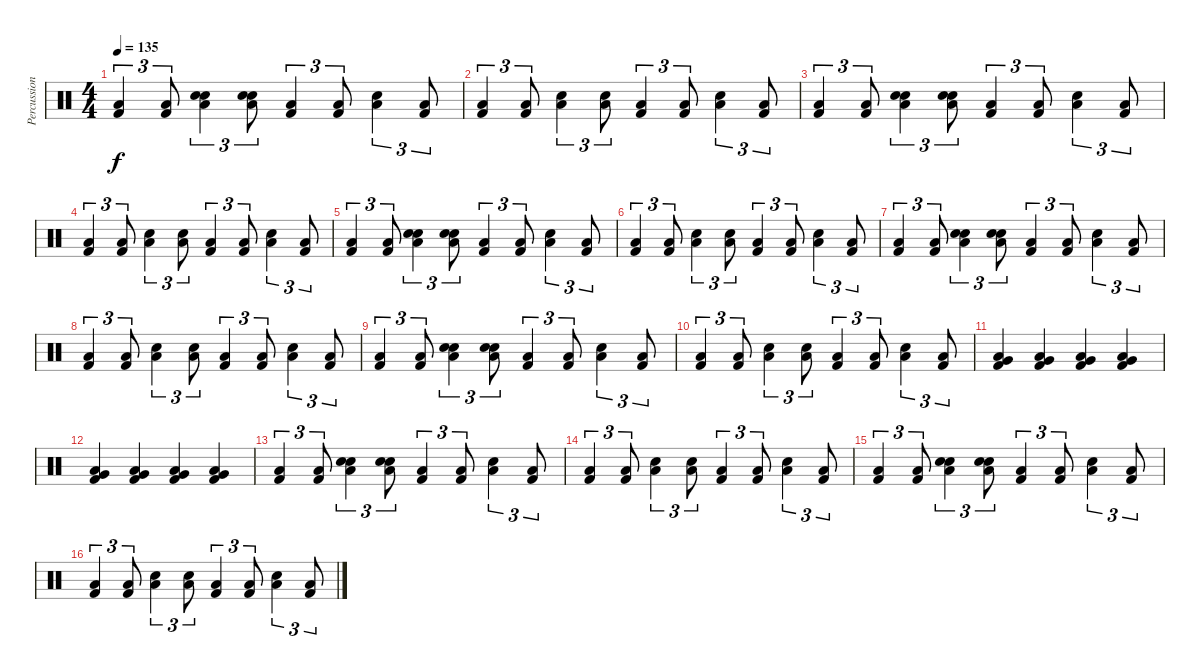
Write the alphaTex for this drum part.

\track ("Percussion" "Percussion") {instrument percussion}
\staff {score}
\articulation defaults
\ts (4 4)
\tempo 135
\clef neutral
\ks c
("Low Floor Tom (hit)" "Kick (hit) 2").4{tu (3 2) dy f} ("Low Floor Tom (hit)" "Kick (hit) 2").8{tu (3 2)} ("Hand Clap (hit)" "Low Floor Tom (hit)" "Electric Snare (hit)").4{tu (3 2)} ("Hand Clap (hit)" "Low Floor Tom (hit)" "Electric Snare (hit)").8{tu (3 2)} ("Low Floor Tom (hit)" "Kick (hit) 2").4{tu (3 2)} ("Low Floor Tom (hit)" "Kick (hit) 2").8{tu (3 2)} ("Low Floor Tom (hit)" "Electric Snare (hit)").4{tu (3 2)} ("Low Floor Tom (hit)" "Kick (hit) 2").8{tu (3 2)} |
("Low Floor Tom (hit)" "Kick (hit) 2").4{tu (3 2)} ("Low Floor Tom (hit)" "Kick (hit) 2").8{tu (3 2)} ("Low Floor Tom (hit)" "Electric Snare (hit)").4{tu (3 2)} ("Low Floor Tom (hit)" "Electric Snare (hit)").8{tu (3 2)} ("Low Floor Tom (hit)" "Kick (hit) 2").4{tu (3 2)} ("Low Floor Tom (hit)" "Kick (hit) 2").8{tu (3 2)} ("Low Floor Tom (hit)" "Electric Snare (hit)").4{tu (3 2)} ("Low Floor Tom (hit)" "Kick (hit) 2").8{tu (3 2)} |
("Low Floor Tom (hit)" "Kick (hit) 2").4{tu (3 2)} ("Low Floor Tom (hit)" "Kick (hit) 2").8{tu (3 2)} ("Hand Clap (hit)" "Low Floor Tom (hit)" "Electric Snare (hit)").4{tu (3 2)} ("Hand Clap (hit)" "Low Floor Tom (hit)" "Electric Snare (hit)").8{tu (3 2)} ("Low Floor Tom (hit)" "Kick (hit) 2").4{tu (3 2)} ("Low Floor Tom (hit)" "Kick (hit) 2").8{tu (3 2)} ("Low Floor Tom (hit)" "Electric Snare (hit)").4{tu (3 2)} ("Low Floor Tom (hit)" "Kick (hit) 2").8{tu (3 2)} |
("Low Floor Tom (hit)" "Kick (hit) 2").4{tu (3 2)} ("Low Floor Tom (hit)" "Kick (hit) 2").8{tu (3 2)} ("Low Floor Tom (hit)" "Electric Snare (hit)").4{tu (3 2)} ("Low Floor Tom (hit)" "Electric Snare (hit)").8{tu (3 2)} ("Low Floor Tom (hit)" "Kick (hit) 2").4{tu (3 2)} ("Low Floor Tom (hit)" "Kick (hit) 2").8{tu (3 2)} ("Low Floor Tom (hit)" "Electric Snare (hit)").4{tu (3 2)} ("Low Floor Tom (hit)" "Kick (hit) 2").8{tu (3 2)} |
("Low Floor Tom (hit)" "Kick (hit) 2").4{tu (3 2)} ("Low Floor Tom (hit)" "Kick (hit) 2").8{tu (3 2)} ("Hand Clap (hit)" "Low Floor Tom (hit)" "Electric Snare (hit)").4{tu (3 2)} ("Hand Clap (hit)" "Low Floor Tom (hit)" "Electric Snare (hit)").8{tu (3 2)} ("Low Floor Tom (hit)" "Kick (hit) 2").4{tu (3 2)} ("Low Floor Tom (hit)" "Kick (hit) 2").8{tu (3 2)} ("Low Floor Tom (hit)" "Electric Snare (hit)").4{tu (3 2)} ("Low Floor Tom (hit)" "Kick (hit) 2").8{tu (3 2)} |
("Low Floor Tom (hit)" "Kick (hit) 2").4{tu (3 2)} ("Low Floor Tom (hit)" "Kick (hit) 2").8{tu (3 2)} ("Low Floor Tom (hit)" "Electric Snare (hit)").4{tu (3 2)} ("Low Floor Tom (hit)" "Electric Snare (hit)").8{tu (3 2)} ("Low Floor Tom (hit)" "Kick (hit) 2").4{tu (3 2)} ("Low Floor Tom (hit)" "Kick (hit) 2").8{tu (3 2)} ("Low Floor Tom (hit)" "Electric Snare (hit)").4{tu (3 2)} ("Low Floor Tom (hit)" "Kick (hit) 2").8{tu (3 2)} |
("Low Floor Tom (hit)" "Kick (hit) 2").4{tu (3 2)} ("Low Floor Tom (hit)" "Kick (hit) 2").8{tu (3 2)} ("Hand Clap (hit)" "Low Floor Tom (hit)" "Electric Snare (hit)").4{tu (3 2)} ("Hand Clap (hit)" "Low Floor Tom (hit)" "Electric Snare (hit)").8{tu (3 2)} ("Low Floor Tom (hit)" "Kick (hit) 2").4{tu (3 2)} ("Low Floor Tom (hit)" "Kick (hit) 2").8{tu (3 2)} ("Low Floor Tom (hit)" "Electric Snare (hit)").4{tu (3 2)} ("Low Floor Tom (hit)" "Kick (hit) 2").8{tu (3 2)} |
("Low Floor Tom (hit)" "Kick (hit) 2").4{tu (3 2)} ("Low Floor Tom (hit)" "Kick (hit) 2").8{tu (3 2)} ("Low Floor Tom (hit)" "Electric Snare (hit)").4{tu (3 2)} ("Low Floor Tom (hit)" "Electric Snare (hit)").8{tu (3 2)} ("Low Floor Tom (hit)" "Kick (hit) 2").4{tu (3 2)} ("Low Floor Tom (hit)" "Kick (hit) 2").8{tu (3 2)} ("Low Floor Tom (hit)" "Electric Snare (hit)").4{tu (3 2)} ("Low Floor Tom (hit)" "Kick (hit) 2").8{tu (3 2)} |
("Low Floor Tom (hit)" "Kick (hit) 2").4{tu (3 2)} ("Low Floor Tom (hit)" "Kick (hit) 2").8{tu (3 2)} ("Hand Clap (hit)" "Low Floor Tom (hit)" "Electric Snare (hit)").4{tu (3 2)} ("Hand Clap (hit)" "Low Floor Tom (hit)" "Electric Snare (hit)").8{tu (3 2)} ("Low Floor Tom (hit)" "Kick (hit) 2").4{tu (3 2)} ("Low Floor Tom (hit)" "Kick (hit) 2").8{tu (3 2)} ("Low Floor Tom (hit)" "Electric Snare (hit)").4{tu (3 2)} ("Low Floor Tom (hit)" "Kick (hit) 2").8{tu (3 2)} |
("Low Floor Tom (hit)" "Kick (hit) 2").4{tu (3 2)} ("Low Floor Tom (hit)" "Kick (hit) 2").8{tu (3 2)} ("Low Floor Tom (hit)" "Electric Snare (hit)").4{tu (3 2)} ("Low Floor Tom (hit)" "Electric Snare (hit)").8{tu (3 2)} ("Low Floor Tom (hit)" "Kick (hit) 2").4{tu (3 2)} ("Low Floor Tom (hit)" "Kick (hit) 2").8{tu (3 2)} ("Low Floor Tom (hit)" "Electric Snare (hit)").4{tu (3 2)} ("Low Floor Tom (hit)" "Kick (hit) 2").8{tu (3 2)} |
("Very Low Tom (hit)" "Low Floor Tom (hit)" "Kick (hit) 2").4 ("Very Low Tom (hit)" "Low Floor Tom (hit)" "Kick (hit) 2").4 ("Very Low Tom (hit)" "Low Floor Tom (hit)" "Kick (hit) 2").4 ("Very Low Tom (hit)" "Low Floor Tom (hit)" "Kick (hit) 2").4 |
("Very Low Tom (hit)" "Low Floor Tom (hit)" "Kick (hit) 2").4 ("Very Low Tom (hit)" "Low Floor Tom (hit)" "Kick (hit) 2").4 ("Very Low Tom (hit)" "Low Floor Tom (hit)" "Kick (hit) 2").4 ("Very Low Tom (hit)" "Low Floor Tom (hit)" "Kick (hit) 2").4 |
("Low Floor Tom (hit)" "Kick (hit) 2").4{tu (3 2)} ("Low Floor Tom (hit)" "Kick (hit) 2").8{tu (3 2)} ("Hand Clap (hit)" "Low Floor Tom (hit)" "Electric Snare (hit)").4{tu (3 2)} ("Hand Clap (hit)" "Low Floor Tom (hit)" "Electric Snare (hit)").8{tu (3 2)} ("Low Floor Tom (hit)" "Kick (hit) 2").4{tu (3 2)} ("Low Floor Tom (hit)" "Kick (hit) 2").8{tu (3 2)} ("Low Floor Tom (hit)" "Electric Snare (hit)").4{tu (3 2)} ("Low Floor Tom (hit)" "Kick (hit) 2").8{tu (3 2)} |
("Low Floor Tom (hit)" "Kick (hit) 2").4{tu (3 2)} ("Low Floor Tom (hit)" "Kick (hit) 2").8{tu (3 2)} ("Low Floor Tom (hit)" "Electric Snare (hit)").4{tu (3 2)} ("Low Floor Tom (hit)" "Electric Snare (hit)").8{tu (3 2)} ("Low Floor Tom (hit)" "Kick (hit) 2").4{tu (3 2)} ("Low Floor Tom (hit)" "Kick (hit) 2").8{tu (3 2)} ("Low Floor Tom (hit)" "Electric Snare (hit)").4{tu (3 2)} ("Low Floor Tom (hit)" "Kick (hit) 2").8{tu (3 2)} |
("Low Floor Tom (hit)" "Kick (hit) 2").4{tu (3 2)} ("Low Floor Tom (hit)" "Kick (hit) 2").8{tu (3 2)} ("Hand Clap (hit)" "Low Floor Tom (hit)" "Electric Snare (hit)").4{tu (3 2)} ("Hand Clap (hit)" "Low Floor Tom (hit)" "Electric Snare (hit)").8{tu (3 2)} ("Low Floor Tom (hit)" "Kick (hit) 2").4{tu (3 2)} ("Low Floor Tom (hit)" "Kick (hit) 2").8{tu (3 2)} ("Low Floor Tom (hit)" "Electric Snare (hit)").4{tu (3 2)} ("Low Floor Tom (hit)" "Kick (hit) 2").8{tu (3 2)} |
("Low Floor Tom (hit)" "Kick (hit) 2").4{tu (3 2)} ("Low Floor Tom (hit)" "Kick (hit) 2").8{tu (3 2)} ("Low Floor Tom (hit)" "Electric Snare (hit)").4{tu (3 2)} ("Low Floor Tom (hit)" "Electric Snare (hit)").8{tu (3 2)} ("Low Floor Tom (hit)" "Kick (hit) 2").4{tu (3 2)} ("Low Floor Tom (hit)" "Kick (hit) 2").8{tu (3 2)} ("Low Floor Tom (hit)" "Electric Snare (hit)").4{tu (3 2)} ("Low Floor Tom (hit)" "Kick (hit) 2").8{tu (3 2)}
